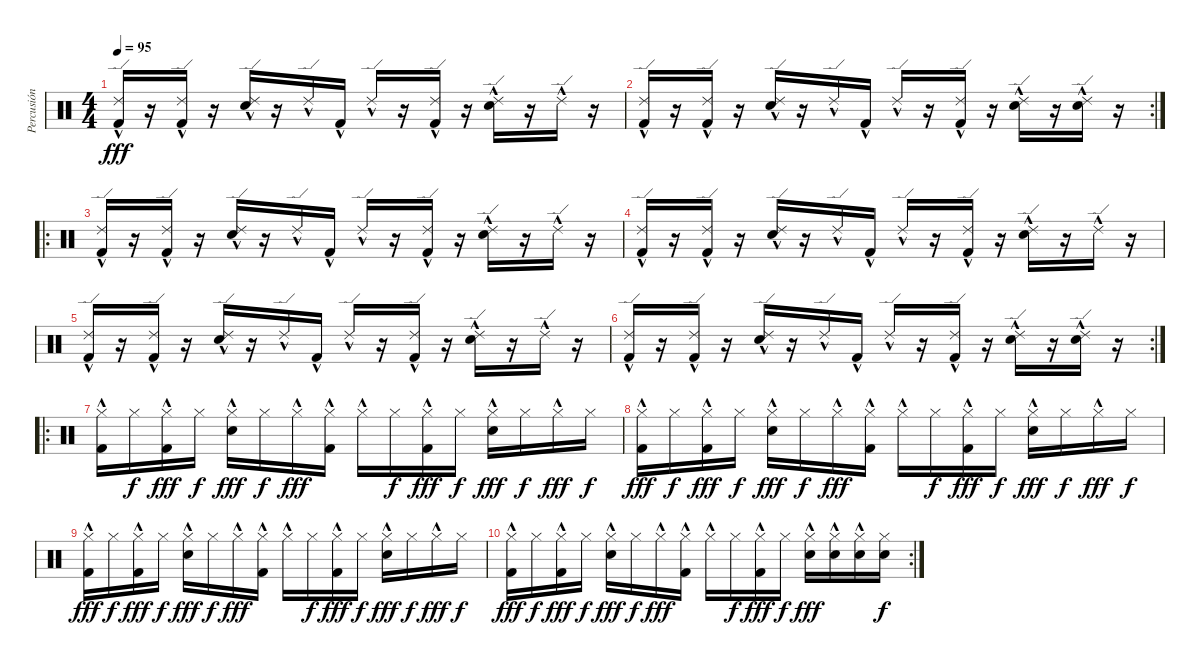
\track ("Percusión" "Percusión") {instrument percussion}
\staff {score}
\articulation defaults
\ts (4 4)
\tempo 95
\clef neutral
\ks c
("Ride (edge) 2"{hac} "Kick (hit) 2"{hac}).16{dy fff} r.16 ("Ride (edge) 2"{hac} "Kick (hit) 2"{hac}).16 r.16 ("Ride (edge) 2"{hac} "Electric Snare (hit)"{hac}).16 r.16 "Ride (edge) 2"{hac}.16 "Kick (hit) 2"{hac}.16 "Ride (edge) 2"{hac}.16 r.16 ("Ride (edge) 2"{hac} "Kick (hit) 2"{hac}).16 r.16 ("Ride (edge) 2"{hac} "Electric Snare (hit)"{hac}).16 r.16 "Ride (edge) 2"{hac}.16 r.16 |
\rc 2
("Ride (edge) 2"{hac} "Kick (hit) 2"{hac}).16 r.16 ("Ride (edge) 2"{hac} "Kick (hit) 2"{hac}).16 r.16 ("Ride (edge) 2"{hac} "Electric Snare (hit)"{hac}).16 r.16 "Ride (edge) 2"{hac}.16 "Kick (hit) 2"{hac}.16 "Ride (edge) 2"{hac}.16 r.16 ("Ride (edge) 2"{hac} "Kick (hit) 2"{hac}).16 r.16 ("Ride (edge) 2"{hac} "Electric Snare (hit)"{hac}).16 r.16 ("Ride (edge) 2"{hac} "Electric Snare (hit)"{hac}).16 r.16 |
\ro
("Ride (edge) 2"{hac} "Kick (hit) 2"{hac}).16 r.16 ("Ride (edge) 2"{hac} "Kick (hit) 2"{hac}).16 r.16 ("Ride (edge) 2"{hac} "Electric Snare (hit)"{hac}).16 r.16 "Ride (edge) 2"{hac}.16 "Kick (hit) 2"{hac}.16 "Ride (edge) 2"{hac}.16 r.16 ("Ride (edge) 2"{hac} "Kick (hit) 2"{hac}).16 r.16 ("Ride (edge) 2"{hac} "Electric Snare (hit)"{hac}).16 r.16 "Ride (edge) 2"{hac}.16 r.16 |
("Ride (edge) 2"{hac} "Kick (hit) 2"{hac}).16 r.16 ("Ride (edge) 2"{hac} "Kick (hit) 2"{hac}).16 r.16 ("Ride (edge) 2"{hac} "Electric Snare (hit)"{hac}).16 r.16 "Ride (edge) 2"{hac}.16 "Kick (hit) 2"{hac}.16 "Ride (edge) 2"{hac}.16 r.16 ("Ride (edge) 2"{hac} "Kick (hit) 2"{hac}).16 r.16 ("Ride (edge) 2"{hac} "Electric Snare (hit)"{hac}).16 r.16 "Ride (edge) 2"{hac}.16 r.16 |
("Ride (edge) 2"{hac} "Kick (hit) 2"{hac}).16 r.16 ("Ride (edge) 2"{hac} "Kick (hit) 2"{hac}).16 r.16 ("Ride (edge) 2"{hac} "Electric Snare (hit)"{hac}).16 r.16 "Ride (edge) 2"{hac}.16 "Kick (hit) 2"{hac}.16 "Ride (edge) 2"{hac}.16 r.16 ("Ride (edge) 2"{hac} "Kick (hit) 2"{hac}).16 r.16 ("Ride (edge) 2"{hac} "Electric Snare (hit)"{hac}).16 r.16 "Ride (edge) 2"{hac}.16 r.16 |
\rc 2
("Ride (edge) 2"{hac} "Kick (hit) 2"{hac}).16 r.16 ("Ride (edge) 2"{hac} "Kick (hit) 2"{hac}).16 r.16 ("Ride (edge) 2"{hac} "Electric Snare (hit)"{hac}).16 r.16 "Ride (edge) 2"{hac}.16 "Kick (hit) 2"{hac}.16 "Ride (edge) 2"{hac}.16 r.16 ("Ride (edge) 2"{hac} "Kick (hit) 2"{hac}).16 r.16 ("Ride (edge) 2"{hac} "Electric Snare (hit)"{hac}).16 r.16 ("Ride (edge) 2"{hac} "Electric Snare (hit)"{hac}).16 r.16 |
\ro
("Hi-Hat (closed)"{hac} "Kick (hit) 2"{hac}).16 "Hi-Hat (closed)".16{dy f} ("Hi-Hat (closed)"{hac} "Kick (hit) 2"{hac}).16{dy fff} "Hi-Hat (closed)".16{dy f} ("Hi-Hat (closed)"{hac} "Electric Snare (hit)"{hac}).16{dy fff} "Hi-Hat (closed)".16{dy f} "Hi-Hat (closed)"{hac}.16{dy fff} ("Hi-Hat (closed)" "Kick (hit) 2"{hac}).16 "Hi-Hat (closed)"{hac}.16 "Hi-Hat (closed)".16{dy f} ("Hi-Hat (closed)"{hac} "Kick (hit) 2"{hac}).16{dy fff} "Hi-Hat (closed)".16{dy f} ("Hi-Hat (closed)"{hac} "Electric Snare (hit)"{hac}).16{dy fff} "Hi-Hat (closed)".16{dy f} "Hi-Hat (closed)"{hac}.16{dy fff} "Hi-Hat (closed)".16{dy f} |
("Hi-Hat (closed)"{hac} "Kick (hit) 2"{hac}).16{dy fff} "Hi-Hat (closed)".16{dy f} ("Hi-Hat (closed)"{hac} "Kick (hit) 2"{hac}).16{dy fff} "Hi-Hat (closed)".16{dy f} ("Hi-Hat (closed)"{hac} "Electric Snare (hit)"{hac}).16{dy fff} "Hi-Hat (closed)".16{dy f} "Hi-Hat (closed)"{hac}.16{dy fff} ("Hi-Hat (closed)" "Kick (hit) 2"{hac}).16 "Hi-Hat (closed)"{hac}.16 "Hi-Hat (closed)".16{dy f} ("Hi-Hat (closed)"{hac} "Kick (hit) 2"{hac}).16{dy fff} "Hi-Hat (closed)".16{dy f} ("Hi-Hat (closed)"{hac} "Electric Snare (hit)"{hac}).16{dy fff} "Hi-Hat (closed)".16{dy f} "Hi-Hat (closed)"{hac}.16{dy fff} "Hi-Hat (closed)".16{dy f} |
("Hi-Hat (closed)"{hac} "Kick (hit) 2"{hac}).16{dy fff} "Hi-Hat (closed)".16{dy f} ("Hi-Hat (closed)"{hac} "Kick (hit) 2"{hac}).16{dy fff} "Hi-Hat (closed)".16{dy f} ("Hi-Hat (closed)"{hac} "Electric Snare (hit)"{hac}).16{dy fff} "Hi-Hat (closed)".16{dy f} "Hi-Hat (closed)"{hac}.16{dy fff} ("Hi-Hat (closed)" "Kick (hit) 2"{hac}).16 "Hi-Hat (closed)"{hac}.16 "Hi-Hat (closed)".16{dy f} ("Hi-Hat (closed)"{hac} "Kick (hit) 2"{hac}).16{dy fff} "Hi-Hat (closed)".16{dy f} ("Hi-Hat (closed)"{hac} "Electric Snare (hit)"{hac}).16{dy fff} "Hi-Hat (closed)".16{dy f} "Hi-Hat (closed)"{hac}.16{dy fff} "Hi-Hat (closed)".16{dy f} |
\rc 2
("Hi-Hat (closed)"{hac} "Kick (hit) 2"{hac}).16{dy fff} "Hi-Hat (closed)".16{dy f} ("Hi-Hat (closed)"{hac} "Kick (hit) 2"{hac}).16{dy fff} "Hi-Hat (closed)".16{dy f} ("Hi-Hat (closed)"{hac} "Electric Snare (hit)"{hac}).16{dy fff} "Hi-Hat (closed)".16{dy f} "Hi-Hat (closed)"{hac}.16{dy fff} ("Hi-Hat (closed)" "Kick (hit) 2"{hac}).16 "Hi-Hat (closed)"{hac}.16 "Hi-Hat (closed)".16{dy f} ("Hi-Hat (closed)"{hac} "Kick (hit) 2"{hac}).16{dy fff} "Hi-Hat (closed)".16{dy f} ("Hi-Hat (closed)"{hac} "Electric Snare (hit)"{hac}).16{dy fff} ("Hi-Hat (closed)" "Electric Snare (hit)"{hac}).16 ("Hi-Hat (closed)"{hac} "Electric Snare (hit)"{hac}).16 ("Hi-Hat (closed)" "Electric Snare (hit)").16{dy f}
